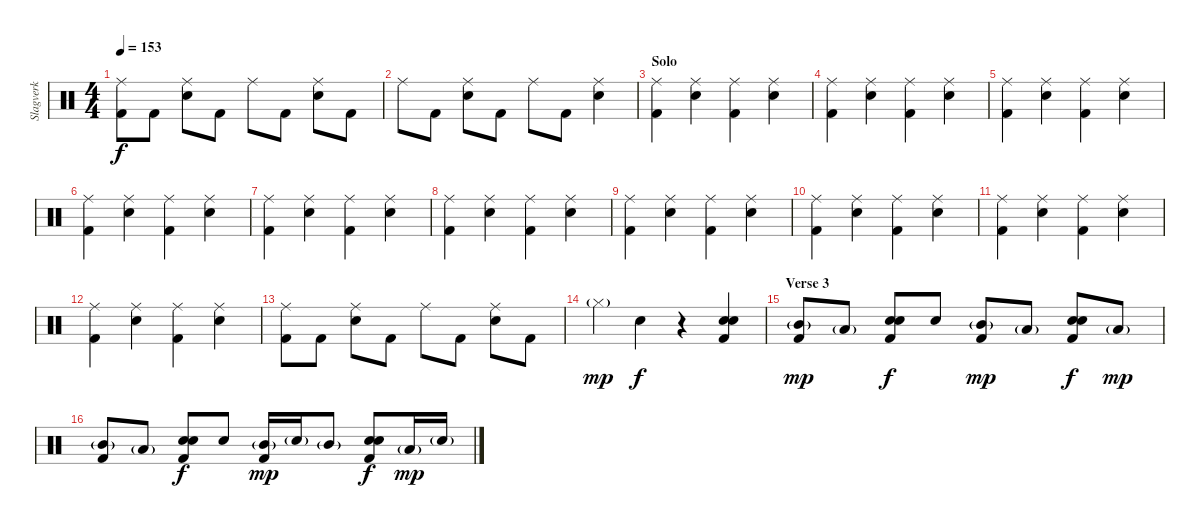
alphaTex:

\track ("Slagverk" "Slagverk") {instrument percussion}
\staff {score}
\articulation defaults
\ts (4 4)
\tempo 153
\clef neutral
\ks c
("Ride (middle)" "Kick (hit) 2").8{dy f} "Kick (hit) 2".8 ("Ride (middle)" "Electric Snare (hit)").8 "Kick (hit) 2".8 "Ride (middle)".8 "Kick (hit) 2".8 ("Ride (middle)" "Electric Snare (hit)").8 "Kick (hit) 2".8 |
"Ride (middle)".8 "Kick (hit) 2".8 ("Ride (middle)" "Electric Snare (hit)").8 "Kick (hit) 2".8 "Ride (middle)".8 "Kick (hit) 2".8 ("Ride (middle)" "Electric Snare (hit)").4 |
\section ("" "Solo")
("Ride (middle)" "Kick (hit) 2").4 ("Ride (middle)" "Electric Snare (hit)").4 ("Ride (middle)" "Kick (hit) 2").4 ("Ride (middle)" "Electric Snare (hit)").4 |
("Ride (middle)" "Kick (hit) 2").4 ("Ride (middle)" "Electric Snare (hit)").4 ("Ride (middle)" "Kick (hit) 2").4 ("Ride (middle)" "Electric Snare (hit)").4 |
("Ride (middle)" "Kick (hit) 2").4 ("Ride (middle)" "Electric Snare (hit)").4 ("Ride (middle)" "Kick (hit) 2").4 ("Ride (middle)" "Electric Snare (hit)").4 |
("Ride (middle)" "Kick (hit) 2").4 ("Ride (middle)" "Electric Snare (hit)").4 ("Ride (middle)" "Kick (hit) 2").4 ("Ride (middle)" "Electric Snare (hit)").4 |
("Ride (middle)" "Kick (hit) 2").4 ("Ride (middle)" "Electric Snare (hit)").4 ("Ride (middle)" "Kick (hit) 2").4 ("Ride (middle)" "Electric Snare (hit)").4 |
("Ride (middle)" "Kick (hit) 2").4 ("Ride (middle)" "Electric Snare (hit)").4 ("Ride (middle)" "Kick (hit) 2").4 ("Ride (middle)" "Electric Snare (hit)").4 |
("Ride (middle)" "Kick (hit) 2").4 ("Ride (middle)" "Electric Snare (hit)").4 ("Ride (middle)" "Kick (hit) 2").4 ("Ride (middle)" "Electric Snare (hit)").4 |
("Ride (middle)" "Kick (hit) 2").4 ("Ride (middle)" "Electric Snare (hit)").4 ("Ride (middle)" "Kick (hit) 2").4 ("Ride (middle)" "Electric Snare (hit)").4 |
("Ride (middle)" "Kick (hit) 2").4 ("Ride (middle)" "Electric Snare (hit)").4 ("Ride (middle)" "Kick (hit) 2").4 ("Ride (middle)" "Electric Snare (hit)").4 |
("Ride (middle)" "Kick (hit) 2").4 ("Ride (middle)" "Electric Snare (hit)").4 ("Ride (middle)" "Kick (hit) 2").4 ("Ride (middle)" "Electric Snare (hit)").4 |
("Ride (middle)" "Kick (hit) 2").8 "Kick (hit) 2".8 ("Ride (middle)" "Electric Snare (hit)").8 "Kick (hit) 2".8 "Ride (middle)".8 "Kick (hit) 2".8 ("Ride (middle)" "Electric Snare (hit)").8 "Kick (hit) 2".8 |
"Hi-Hat (closed)"{g}.4{dy mp} "Hand Clap (hit)".4{dy f} r.4 ("Hand Clap (hit)" "Electric Snare (hit)" "Kick (hit) 2").4 |
\section ("" "Verse 3")
("Mid Tom (hit)"{g} "Kick (hit) 2").8{dy mp} "Low Tom (hit)"{g}.8 ("Hand Clap (hit)" "Electric Snare (hit)" "Kick (hit) 2").8{dy f} "Electric Snare (hit)".8 ("Mid Tom (hit)"{g} "Kick (hit) 2").8{dy mp} "Low Tom (hit)"{g}.8 ("Hand Clap (hit)" "Electric Snare (hit)" "Kick (hit) 2").8{dy f} "Low Tom (hit)"{g}.8{dy mp} |
("Mid Tom (hit)"{g} "Kick (hit) 2").8 "Low Tom (hit)"{g}.8 ("Hand Clap (hit)" "Electric Snare (hit)" "Kick (hit) 2").8{dy f} "Electric Snare (hit)".8 ("Mid Tom (hit)"{g} "Kick (hit) 2").16{dy mp} "Electric Snare (hit)"{g}.16 "Mid Tom (hit)"{g}.8 ("Hand Clap (hit)" "Electric Snare (hit)" "Kick (hit) 2").8{dy f} "Low Tom (hit)"{g}.16{dy mp} "Electric Snare (hit)"{g}.16
